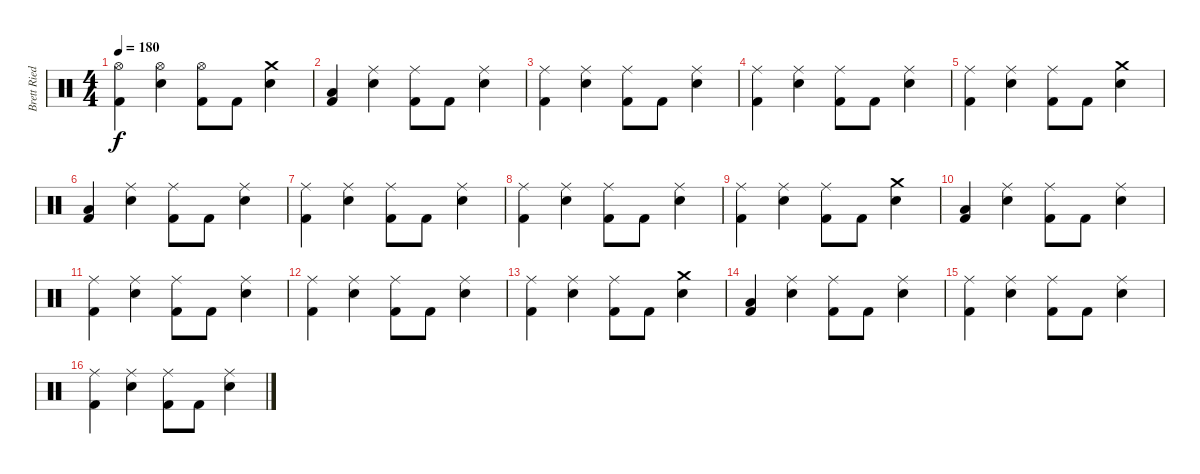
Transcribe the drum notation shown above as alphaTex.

\track ("Brett Ried" "Brett Ried") {instrument percussion}
\staff {score}
\articulation defaults
\ts (4 4)
\tempo 180
\clef neutral
\ks c
("Hi-Hat (open)" "Kick (hit) 2").4{dy f} ("Hi-Hat (open)" "Snare (hit) 2").4 ("Hi-Hat (open)" "Kick (hit) 2").8 "Kick (hit) 2".8 ("Crash medium (hit)" "Snare (hit) 2").4 |
("Low Floor Tom (hit)" "Kick (hit) 2").4 ("Ride (middle)" "Snare (hit) 2").4 ("Ride (middle)" "Kick (hit) 2").8 "Kick (hit) 2".8 ("Ride (middle)" "Snare (hit) 2").4 |
("Ride (middle)" "Kick (hit) 2").4 ("Ride (middle)" "Snare (hit) 2").4 ("Ride (middle)" "Kick (hit) 2").8 "Kick (hit) 2".8 ("Ride (middle)" "Snare (hit) 2").4 |
("Ride (middle)" "Kick (hit) 2").4 ("Ride (middle)" "Snare (hit) 2").4 ("Ride (middle)" "Kick (hit) 2").8 "Kick (hit) 2".8 ("Ride (middle)" "Snare (hit) 2").4 |
("Ride (middle)" "Kick (hit) 2").4 ("Ride (middle)" "Snare (hit) 2").4 ("Ride (middle)" "Kick (hit) 2").8 "Kick (hit) 2".8 ("Crash medium (hit)" "Snare (hit) 2").4 |
("Low Floor Tom (hit)" "Kick (hit) 2").4 ("Ride (middle)" "Snare (hit) 2").4 ("Ride (middle)" "Kick (hit) 2").8 "Kick (hit) 2".8 ("Ride (middle)" "Snare (hit) 2").4 |
("Ride (middle)" "Kick (hit) 2").4 ("Ride (middle)" "Snare (hit) 2").4 ("Ride (middle)" "Kick (hit) 2").8 "Kick (hit) 2".8 ("Ride (middle)" "Snare (hit) 2").4 |
("Ride (middle)" "Kick (hit) 2").4 ("Ride (middle)" "Snare (hit) 2").4 ("Ride (middle)" "Kick (hit) 2").8 "Kick (hit) 2".8 ("Ride (middle)" "Snare (hit) 2").4 |
("Ride (middle)" "Kick (hit) 2").4 ("Ride (middle)" "Snare (hit) 2").4 ("Ride (middle)" "Kick (hit) 2").8 "Kick (hit) 2".8 ("Crash medium (hit)" "Snare (hit) 2").4 |
("Low Floor Tom (hit)" "Kick (hit) 2").4 ("Ride (middle)" "Snare (hit) 2").4 ("Ride (middle)" "Kick (hit) 2").8 "Kick (hit) 2".8 ("Ride (middle)" "Snare (hit) 2").4 |
("Ride (middle)" "Kick (hit) 2").4 ("Ride (middle)" "Snare (hit) 2").4 ("Ride (middle)" "Kick (hit) 2").8 "Kick (hit) 2".8 ("Ride (middle)" "Snare (hit) 2").4 |
("Ride (middle)" "Kick (hit) 2").4 ("Ride (middle)" "Snare (hit) 2").4 ("Ride (middle)" "Kick (hit) 2").8 "Kick (hit) 2".8 ("Ride (middle)" "Snare (hit) 2").4 |
("Ride (middle)" "Kick (hit) 2").4 ("Ride (middle)" "Snare (hit) 2").4 ("Ride (middle)" "Kick (hit) 2").8 "Kick (hit) 2".8 ("Crash medium (hit)" "Snare (hit) 2").4 |
("Low Floor Tom (hit)" "Kick (hit) 2").4 ("Ride (middle)" "Snare (hit) 2").4 ("Ride (middle)" "Kick (hit) 2").8 "Kick (hit) 2".8 ("Ride (middle)" "Snare (hit) 2").4 |
("Ride (middle)" "Kick (hit) 2").4 ("Ride (middle)" "Snare (hit) 2").4 ("Ride (middle)" "Kick (hit) 2").8 "Kick (hit) 2".8 ("Ride (middle)" "Snare (hit) 2").4 |
("Ride (middle)" "Kick (hit) 2").4 ("Ride (middle)" "Snare (hit) 2").4 ("Ride (middle)" "Kick (hit) 2").8 "Kick (hit) 2".8 ("Ride (middle)" "Snare (hit) 2").4
